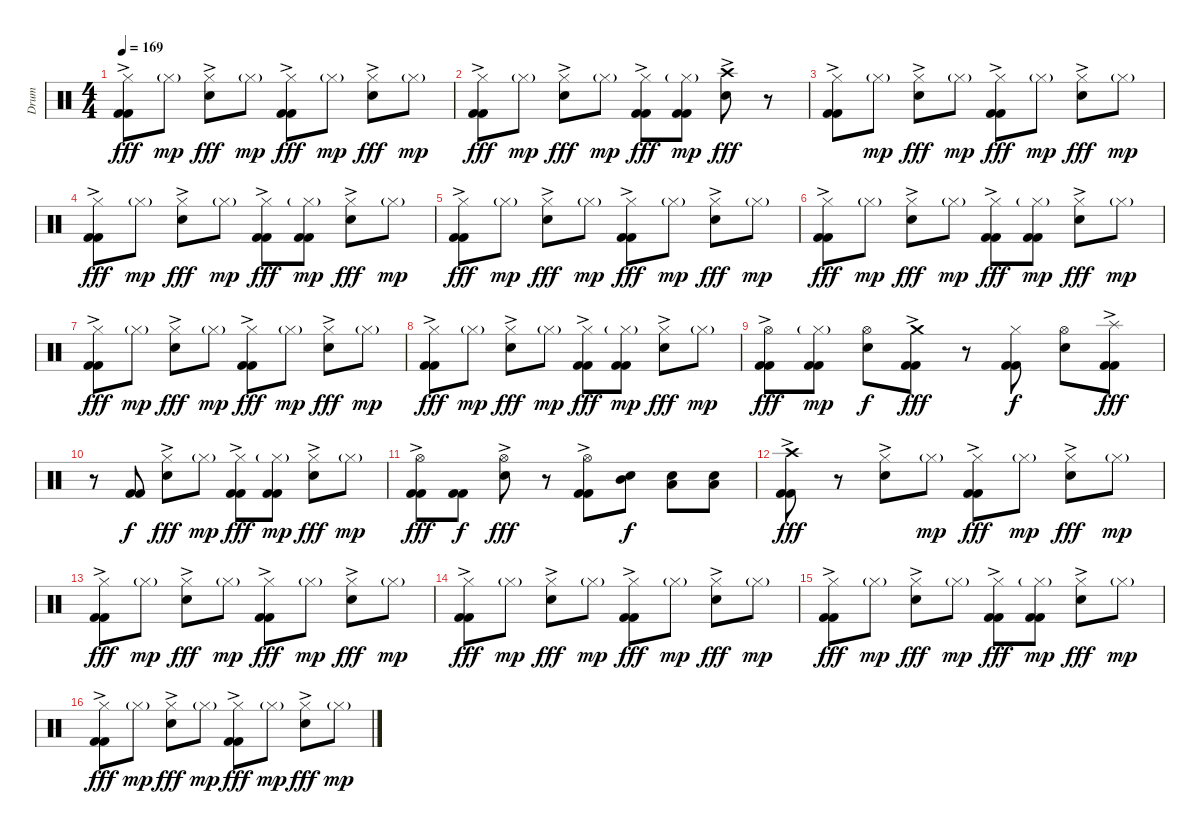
\track ("Drum" "Drum") {instrument percussion}
\staff {score}
\articulation defaults
\ts (4 4)
\tempo 169
\clef neutral
\ks c
("Hi-Hat (closed)"{ac} "Kick (hit) 2" "Kick (hit) 2").8{dy fff} "Hi-Hat (closed)"{g}.8{dy mp} ("Hi-Hat (closed)"{ac} "Electric Snare (hit)").8{dy fff} "Hi-Hat (closed)"{g}.8{dy mp} ("Hi-Hat (closed)"{ac} "Kick (hit) 2" "Kick (hit) 2").8{dy fff} "Hi-Hat (closed)"{g}.8{dy mp} ("Hi-Hat (closed)"{ac} "Electric Snare (hit)").8{dy fff} "Hi-Hat (closed)"{g}.8{dy mp} |
("Hi-Hat (closed)"{ac} "Kick (hit) 2" "Kick (hit) 2").8{dy fff} "Hi-Hat (closed)"{g}.8{dy mp} ("Hi-Hat (closed)"{ac} "Electric Snare (hit)").8{dy fff} "Hi-Hat (closed)"{g}.8{dy mp} ("Hi-Hat (closed)"{ac} "Kick (hit) 2" "Kick (hit) 2").8{dy fff} ("Hi-Hat (closed)"{g} "Kick (hit) 2" "Kick (hit) 2").8{dy mp} ("Crash high (hit)"{ac} "Electric Snare (hit)").8{dy fff} r.8 |
("Hi-Hat (closed)"{ac} "Kick (hit) 2" "Kick (hit) 2").8 "Hi-Hat (closed)"{g}.8{dy mp} ("Hi-Hat (closed)"{ac} "Electric Snare (hit)").8{dy fff} "Hi-Hat (closed)"{g}.8{dy mp} ("Hi-Hat (closed)"{ac} "Kick (hit) 2" "Kick (hit) 2").8{dy fff} "Hi-Hat (closed)"{g}.8{dy mp} ("Hi-Hat (closed)"{ac} "Electric Snare (hit)").8{dy fff} "Hi-Hat (closed)"{g}.8{dy mp} |
("Hi-Hat (closed)"{ac} "Kick (hit) 2" "Kick (hit) 2").8{dy fff} "Hi-Hat (closed)"{g}.8{dy mp} ("Hi-Hat (closed)"{ac} "Electric Snare (hit)").8{dy fff} "Hi-Hat (closed)"{g}.8{dy mp} ("Hi-Hat (closed)"{ac} "Kick (hit) 2" "Kick (hit) 2").8{dy fff} ("Hi-Hat (closed)"{g} "Kick (hit) 2" "Kick (hit) 2").8{dy mp} ("Hi-Hat (closed)"{ac} "Electric Snare (hit)").8{dy fff} "Hi-Hat (closed)"{g}.8{dy mp} |
("Hi-Hat (closed)"{ac} "Kick (hit) 2" "Kick (hit) 2").8{dy fff} "Hi-Hat (closed)"{g}.8{dy mp} ("Hi-Hat (closed)"{ac} "Electric Snare (hit)").8{dy fff} "Hi-Hat (closed)"{g}.8{dy mp} ("Hi-Hat (closed)"{ac} "Kick (hit) 2" "Kick (hit) 2").8{dy fff} "Hi-Hat (closed)"{g}.8{dy mp} ("Hi-Hat (closed)"{ac} "Electric Snare (hit)").8{dy fff} "Hi-Hat (closed)"{g}.8{dy mp} |
("Hi-Hat (closed)"{ac} "Kick (hit) 2" "Kick (hit) 2").8{dy fff} "Hi-Hat (closed)"{g}.8{dy mp} ("Hi-Hat (closed)"{ac} "Electric Snare (hit)").8{dy fff} "Hi-Hat (closed)"{g}.8{dy mp} ("Hi-Hat (closed)"{ac} "Kick (hit) 2" "Kick (hit) 2").8{dy fff} ("Hi-Hat (closed)"{g} "Kick (hit) 2" "Kick (hit) 2").8{dy mp} ("Hi-Hat (closed)"{ac} "Electric Snare (hit)").8{dy fff} "Hi-Hat (closed)"{g}.8{dy mp} |
("Hi-Hat (closed)"{ac} "Kick (hit) 2" "Kick (hit) 2").8{dy fff} "Hi-Hat (closed)"{g}.8{dy mp} ("Hi-Hat (closed)"{ac} "Electric Snare (hit)").8{dy fff} "Hi-Hat (closed)"{g}.8{dy mp} ("Hi-Hat (closed)"{ac} "Kick (hit) 2" "Kick (hit) 2").8{dy fff} "Hi-Hat (closed)"{g}.8{dy mp} ("Hi-Hat (closed)"{ac} "Electric Snare (hit)").8{dy fff} "Hi-Hat (closed)"{g}.8{dy mp} |
("Hi-Hat (closed)"{ac} "Kick (hit) 2" "Kick (hit) 2").8{dy fff} "Hi-Hat (closed)"{g}.8{dy mp} ("Hi-Hat (closed)"{ac} "Electric Snare (hit)").8{dy fff} "Hi-Hat (closed)"{g}.8{dy mp} ("Hi-Hat (closed)"{ac} "Kick (hit) 2" "Kick (hit) 2").8{dy fff} ("Hi-Hat (closed)"{g} "Kick (hit) 2" "Kick (hit) 2").8{dy mp} ("Hi-Hat (closed)"{ac} "Electric Snare (hit)").8{dy fff} "Hi-Hat (closed)"{g}.8{dy mp} |
("Hi-Hat (open)"{ac} "Kick (hit) 2" "Kick (hit) 2").8{dy fff} ("Hi-Hat (closed)"{g} "Kick (hit) 2" "Kick (hit) 2").8{dy mp} ("Hi-Hat (open)" "Electric Snare (hit)").8{dy f} ("Crash medium (hit)"{ac} "Kick (hit) 2" "Kick (hit) 2").8{dy fff} r.8 ("Hi-Hat (closed)" "Kick (hit) 2" "Kick (hit) 2").8{dy f} ("Hi-Hat (open)" "Electric Snare (hit)").8 ("Splash (hit)"{ac} "Kick (hit) 2" "Kick (hit) 2").8{dy fff} |
r.8 ("Kick (hit) 2" "Kick (hit) 2").8{dy f} ("Hi-Hat (closed)"{ac} "Electric Snare (hit)").8{dy fff} "Hi-Hat (closed)"{g}.8{dy mp} ("Hi-Hat (closed)"{ac} "Kick (hit) 2" "Kick (hit) 2").8{dy fff} ("Hi-Hat (closed)"{g} "Kick (hit) 2" "Kick (hit) 2").8{dy mp} ("Hi-Hat (closed)"{ac} "Electric Snare (hit)").8{dy fff} "Hi-Hat (closed)"{g}.8{dy mp} |
("Hi-Hat (open)"{ac} "Kick (hit) 2" "Kick (hit) 2").8{dy fff} ("Kick (hit) 2" "Kick (hit) 2").8{dy f} ("Hi-Hat (open)"{ac} "Electric Snare (hit)").8{dy fff} r.8 ("Hi-Hat (open)"{ac} "Kick (hit) 2" "Kick (hit) 2").8 ("Electric Snare (hit)" "Mid Tom (hit)").8{dy f} ("Electric Snare (hit)" "Low Tom (hit)").8 ("Electric Snare (hit)" "Low Floor Tom (hit)").8 |
("Crash high (hit)"{ac} "Kick (hit) 2" "Kick (hit) 2").8{dy fff} r.8 ("Hi-Hat (closed)"{ac} "Electric Snare (hit)").8 "Hi-Hat (closed)"{g}.8{dy mp} ("Hi-Hat (closed)"{ac} "Kick (hit) 2" "Kick (hit) 2").8{dy fff} "Hi-Hat (closed)"{g}.8{dy mp} ("Hi-Hat (closed)"{ac} "Electric Snare (hit)").8{dy fff} "Hi-Hat (closed)"{g}.8{dy mp} |
("Hi-Hat (closed)"{ac} "Kick (hit) 2" "Kick (hit) 2").8{dy fff} "Hi-Hat (closed)"{g}.8{dy mp} ("Hi-Hat (closed)"{ac} "Electric Snare (hit)").8{dy fff} "Hi-Hat (closed)"{g}.8{dy mp} ("Hi-Hat (closed)"{ac} "Kick (hit) 2" "Kick (hit) 2").8{dy fff} "Hi-Hat (closed)"{g}.8{dy mp} ("Hi-Hat (closed)"{ac} "Electric Snare (hit)").8{dy fff} "Hi-Hat (closed)"{g}.8{dy mp} |
("Hi-Hat (closed)"{ac} "Kick (hit) 2" "Kick (hit) 2").8{dy fff} "Hi-Hat (closed)"{g}.8{dy mp} ("Hi-Hat (closed)"{ac} "Electric Snare (hit)").8{dy fff} "Hi-Hat (closed)"{g}.8{dy mp} ("Hi-Hat (closed)"{ac} "Kick (hit) 2" "Kick (hit) 2").8{dy fff} "Hi-Hat (closed)"{g}.8{dy mp} ("Hi-Hat (closed)"{ac} "Electric Snare (hit)").8{dy fff} "Hi-Hat (closed)"{g}.8{dy mp} |
("Hi-Hat (closed)"{ac} "Kick (hit) 2" "Kick (hit) 2").8{dy fff} "Hi-Hat (closed)"{g}.8{dy mp} ("Hi-Hat (closed)"{ac} "Electric Snare (hit)").8{dy fff} "Hi-Hat (closed)"{g}.8{dy mp} ("Hi-Hat (closed)"{ac} "Kick (hit) 2" "Kick (hit) 2").8{dy fff} ("Hi-Hat (closed)"{g} "Kick (hit) 2" "Kick (hit) 2").8{dy mp} ("Hi-Hat (closed)"{ac} "Electric Snare (hit)").8{dy fff} "Hi-Hat (closed)"{g}.8{dy mp} |
("Hi-Hat (closed)"{ac} "Kick (hit) 2" "Kick (hit) 2").8{dy fff} "Hi-Hat (closed)"{g}.8{dy mp} ("Hi-Hat (closed)"{ac} "Electric Snare (hit)").8{dy fff} "Hi-Hat (closed)"{g}.8{dy mp} ("Hi-Hat (closed)"{ac} "Kick (hit) 2" "Kick (hit) 2").8{dy fff} "Hi-Hat (closed)"{g}.8{dy mp} ("Hi-Hat (closed)"{ac} "Electric Snare (hit)").8{dy fff} "Hi-Hat (closed)"{g}.8{dy mp}
